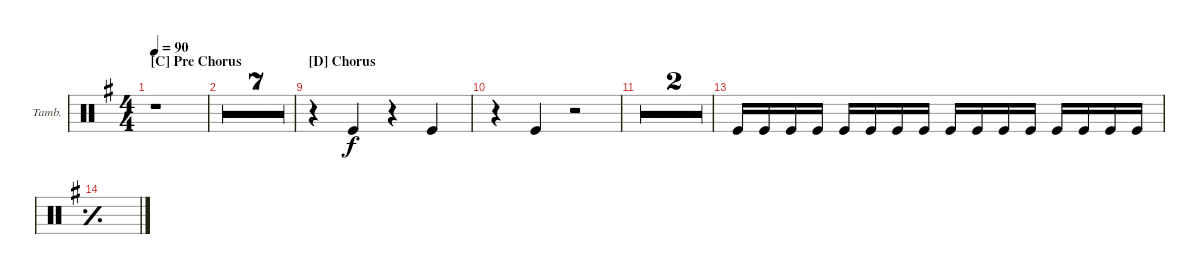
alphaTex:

\defaultSystemsLayout 4
\bracketExtendMode groupsimilarinstruments
\firstSystemTrackNameOrientation horizontal
\otherSystemsTrackNameOrientation horizontal
\track ("Tambourine" "Tamb.") {multiBarRest instrument percussion}
\staff {score}
\articulation defaults
\ts (4 4)
\section ("C" "Pre Chorus")
\tempo 90
\clef neutral
\ks g
r.1{dy f} |
r.1 |
r.1 |
r.1 |
r.1 |
r.1 |
r.1 |
r.1 |
\section ("D" "Chorus")
r.4 "Kick (hit)".4 r.4 "Kick (hit)".4 |
r.4 "Kick (hit)".4 r.2 |
\simile firstofdouble
|
\simile secondofdouble
|
\simile none "Kick (hit)".16 "Kick (hit)".16 "Kick (hit)".16 "Kick (hit)".16 "Kick (hit)".16 "Kick (hit)".16 "Kick (hit)".16 "Kick (hit)".16 "Kick (hit)".16 "Kick (hit)".16 "Kick (hit)".16 "Kick (hit)".16 "Kick (hit)".16 "Kick (hit)".16 "Kick (hit)".16 "Kick (hit)".16
|
\simile simple
